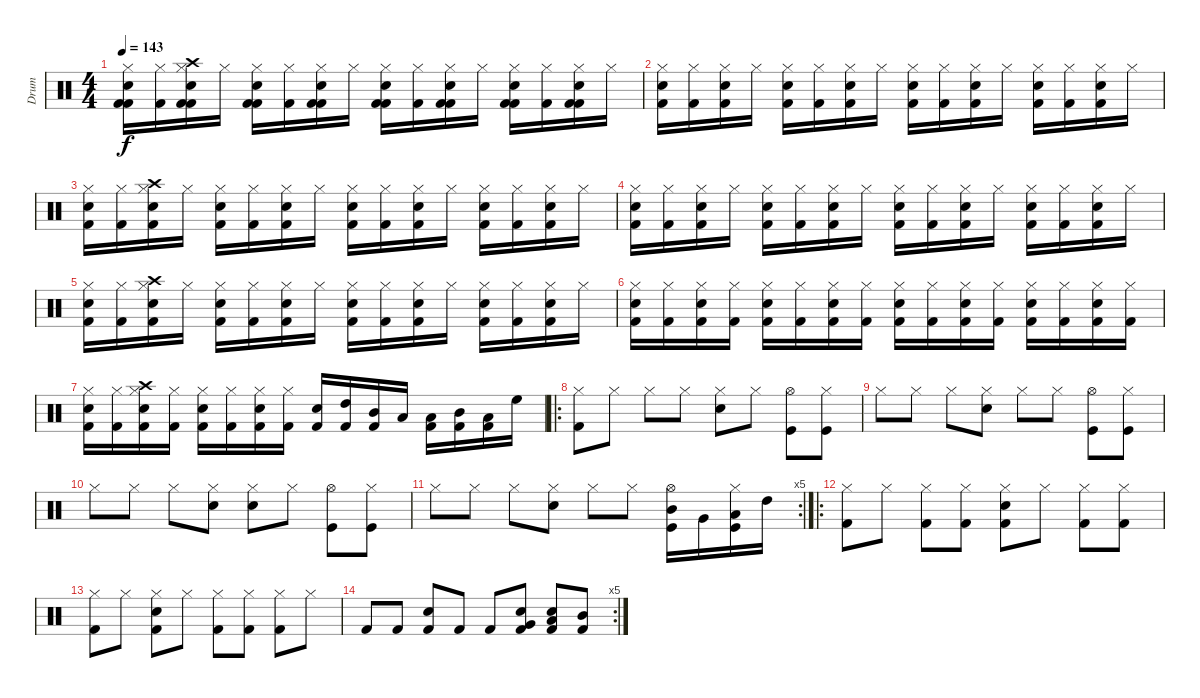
\track ("Drum" "Drum") {instrument percussion}
\staff {score}
\articulation defaults
\ts (4 4)
\tempo 143
\clef neutral
\ks c
("Snare (hit) 2" "Kick (hit) 2" "Kick (hit) 2" "Hi-Hat (closed)").16{dy f} ("Kick (hit) 2" "Hi-Hat (closed)").16 ("Snare (hit) 2" "Crash high (hit)" "Kick (hit) 2" "Kick (hit) 2" "Hi-Hat (closed)").16 "Hi-Hat (closed)".16 ("Snare (hit) 2" "Kick (hit) 2" "Kick (hit) 2" "Hi-Hat (closed)").16 ("Kick (hit) 2" "Hi-Hat (closed)").16 ("Snare (hit) 2" "Kick (hit) 2" "Kick (hit) 2" "Hi-Hat (closed)").16 "Hi-Hat (closed)".16 ("Snare (hit) 2" "Kick (hit) 2" "Kick (hit) 2" "Hi-Hat (closed)").16 ("Kick (hit) 2" "Hi-Hat (closed)").16 ("Snare (hit) 2" "Kick (hit) 2" "Kick (hit) 2" "Hi-Hat (closed)").16 "Hi-Hat (closed)".16 ("Snare (hit) 2" "Kick (hit) 2" "Kick (hit) 2" "Hi-Hat (closed)").16 ("Kick (hit) 2" "Hi-Hat (closed)").16 ("Snare (hit) 2" "Kick (hit) 2" "Kick (hit) 2" "Hi-Hat (closed)").16 "Hi-Hat (closed)".16 |
("Snare (hit) 2" "Kick (hit) 2" "Hi-Hat (closed)").16 ("Kick (hit) 2" "Hi-Hat (closed)").16 ("Snare (hit) 2" "Kick (hit) 2" "Hi-Hat (closed)").16 "Hi-Hat (closed)".16 ("Snare (hit) 2" "Kick (hit) 2" "Hi-Hat (closed)").16 ("Kick (hit) 2" "Hi-Hat (closed)").16 ("Snare (hit) 2" "Kick (hit) 2" "Hi-Hat (closed)").16 "Hi-Hat (closed)".16 ("Snare (hit) 2" "Kick (hit) 2" "Hi-Hat (closed)").16 ("Kick (hit) 2" "Hi-Hat (closed)").16 ("Snare (hit) 2" "Kick (hit) 2" "Hi-Hat (closed)").16 "Hi-Hat (closed)".16 ("Snare (hit) 2" "Kick (hit) 2" "Hi-Hat (closed)").16 ("Kick (hit) 2" "Hi-Hat (closed)").16 ("Snare (hit) 2" "Kick (hit) 2" "Hi-Hat (closed)").16 "Hi-Hat (closed)".16 |
("Snare (hit) 2" "Kick (hit) 2" "Hi-Hat (closed)").16 ("Kick (hit) 2" "Hi-Hat (closed)").16 ("Crash high (hit)" "Snare (hit) 2" "Kick (hit) 2" "Hi-Hat (closed)").16 "Hi-Hat (closed)".16 ("Snare (hit) 2" "Kick (hit) 2" "Hi-Hat (closed)").16 ("Kick (hit) 2" "Hi-Hat (closed)").16 ("Snare (hit) 2" "Kick (hit) 2" "Hi-Hat (closed)").16 "Hi-Hat (closed)".16 ("Snare (hit) 2" "Kick (hit) 2" "Hi-Hat (closed)").16 ("Kick (hit) 2" "Hi-Hat (closed)").16 ("Snare (hit) 2" "Kick (hit) 2" "Hi-Hat (closed)").16 "Hi-Hat (closed)".16 ("Snare (hit) 2" "Kick (hit) 2" "Hi-Hat (closed)").16 ("Kick (hit) 2" "Hi-Hat (closed)").16 ("Snare (hit) 2" "Kick (hit) 2" "Hi-Hat (closed)").16 "Hi-Hat (closed)".16 |
("Snare (hit) 2" "Kick (hit) 2" "Hi-Hat (closed)").16 ("Kick (hit) 2" "Hi-Hat (closed)").16 ("Snare (hit) 2" "Kick (hit) 2" "Hi-Hat (closed)").16 "Hi-Hat (closed)".16 ("Snare (hit) 2" "Kick (hit) 2" "Hi-Hat (closed)").16 ("Kick (hit) 2" "Hi-Hat (closed)").16 ("Snare (hit) 2" "Kick (hit) 2" "Hi-Hat (closed)").16 "Hi-Hat (closed)".16 ("Snare (hit) 2" "Kick (hit) 2" "Hi-Hat (closed)").16 ("Kick (hit) 2" "Hi-Hat (closed)").16 ("Snare (hit) 2" "Kick (hit) 2" "Hi-Hat (closed)").16 "Hi-Hat (closed)".16 ("Snare (hit) 2" "Kick (hit) 2" "Hi-Hat (closed)").16 ("Kick (hit) 2" "Hi-Hat (closed)").16 ("Snare (hit) 2" "Kick (hit) 2" "Hi-Hat (closed)").16 "Hi-Hat (closed)".16 |
("Snare (hit) 2" "Kick (hit) 2" "Hi-Hat (closed)").16 ("Kick (hit) 2" "Hi-Hat (closed)").16 ("Crash high (hit)" "Snare (hit) 2" "Kick (hit) 2" "Hi-Hat (closed)").16 "Hi-Hat (closed)".16 ("Snare (hit) 2" "Kick (hit) 2" "Hi-Hat (closed)").16 ("Kick (hit) 2" "Hi-Hat (closed)").16 ("Snare (hit) 2" "Kick (hit) 2" "Hi-Hat (closed)").16 "Hi-Hat (closed)".16 ("Snare (hit) 2" "Kick (hit) 2" "Hi-Hat (closed)").16 ("Kick (hit) 2" "Hi-Hat (closed)").16 ("Snare (hit) 2" "Kick (hit) 2" "Hi-Hat (closed)").16 "Hi-Hat (closed)".16 ("Snare (hit) 2" "Kick (hit) 2" "Hi-Hat (closed)").16 ("Kick (hit) 2" "Hi-Hat (closed)").16 ("Snare (hit) 2" "Kick (hit) 2" "Hi-Hat (closed)").16 "Hi-Hat (closed)".16 |
("Snare (hit) 2" "Kick (hit) 2" "Hi-Hat (closed)").16 ("Kick (hit) 2" "Hi-Hat (closed)").16 ("Snare (hit) 2" "Kick (hit) 2" "Hi-Hat (closed)").16 ("Kick (hit) 2" "Hi-Hat (closed)").16 ("Snare (hit) 2" "Kick (hit) 2" "Hi-Hat (closed)").16 ("Kick (hit) 2" "Hi-Hat (closed)").16 ("Snare (hit) 2" "Kick (hit) 2" "Hi-Hat (closed)").16 ("Kick (hit) 2" "Hi-Hat (closed)").16 ("Snare (hit) 2" "Kick (hit) 2" "Hi-Hat (closed)").16 ("Kick (hit) 2" "Hi-Hat (closed)").16 ("Snare (hit) 2" "Kick (hit) 2" "Hi-Hat (closed)").16 ("Kick (hit) 2" "Hi-Hat (closed)").16 ("Snare (hit) 2" "Kick (hit) 2" "Hi-Hat (closed)").16 ("Kick (hit) 2" "Hi-Hat (closed)").16 ("Snare (hit) 2" "Kick (hit) 2" "Hi-Hat (closed)").16 ("Kick (hit) 2" "Hi-Hat (closed)").16 |
("Snare (hit) 2" "Kick (hit) 2" "Hi-Hat (closed)").16 ("Kick (hit) 2" "Hi-Hat (closed)").16 ("Crash high (hit)" "Snare (hit) 2" "Kick (hit) 2" "Hi-Hat (closed)").16 ("Kick (hit) 2" "Hi-Hat (closed)").16 ("Snare (hit) 2" "Kick (hit) 2" "Hi-Hat (closed)").16 ("Kick (hit) 2" "Hi-Hat (closed)").16 ("Snare (hit) 2" "Kick (hit) 2" "Hi-Hat (closed)").16 ("Kick (hit) 2" "Hi-Hat (closed)").16 ("Snare (hit) 2" "Kick (hit) 2").16 ("High Tom (hit)" "Kick (hit) 2").16 ("Mid Tom (hit)" "Kick (hit) 2").16 "Low Tom (hit)".16 ("Low Floor Tom (hit)" "Kick (hit) 2").16 ("Mid Tom (hit)" "Kick (hit) 2").16 ("Low Tom (hit)" "Kick (hit) 2").16 "High Floor Tom (hit)".16 |
\ro
("Kick (hit) 2" "Hi-Hat (closed)").8 "Hi-Hat (closed)".8 "Hi-Hat (closed)".8 "Hi-Hat (closed)".8 ("Snare (hit) 2" "Hi-Hat (closed)").8 "Hi-Hat (closed)".8 ("Kick (hit)" "Hi-Hat (open)").8 ("Kick (hit)" "Hi-Hat (closed)").8 |
"Hi-Hat (closed)".8 "Hi-Hat (closed)".8 "Hi-Hat (closed)".8 ("Snare (hit) 2" "Hi-Hat (closed)").8 "Hi-Hat (closed)".8 "Hi-Hat (closed)".8 ("Kick (hit)" "Hi-Hat (open)").8 ("Kick (hit)" "Hi-Hat (closed)").8 |
"Hi-Hat (closed)".8 "Hi-Hat (closed)".8 "Hi-Hat (closed)".8 ("Snare (hit) 2" "Hi-Hat (closed)").8 ("Snare (hit) 2" "Hi-Hat (closed)").8 "Hi-Hat (closed)".8 ("Kick (hit)" "Hi-Hat (open)").8 ("Kick (hit)" "Hi-Hat (closed)").8 |
\rc 5 "Hi-Hat (closed)".8 "Hi-Hat (closed)".8 "Hi-Hat (closed)".8
("Snare (hit) 2" "Hi-Hat (closed)").8 "Hi-Hat (closed)".8 "Hi-Hat (closed)".8 ("Mid Tom (hit)" "Kick (hit)" "Hi-Hat (open)").16 "Very Low Tom (hit)".16 ("Low Floor Tom (hit)" "Kick (hit)" "Hi-Hat (closed)").16 "High Tom (hit)".16 |
\ro
("Kick (hit) 2" "Hi-Hat (closed)").8 "Hi-Hat (closed)".8 ("Kick (hit) 2" "Hi-Hat (closed)").8 ("Kick (hit) 2" "Hi-Hat (closed)").8 ("Snare (hit) 2" "Kick (hit) 2" "Hi-Hat (closed)").8 "Hi-Hat (closed)".8 ("Kick (hit) 2" "Hi-Hat (closed)").8 ("Kick (hit) 2" "Hi-Hat (closed)").8 |
("Kick (hit) 2" "Hi-Hat (closed)").8 "Hi-Hat (closed)".8 ("Snare (hit) 2" "Kick (hit) 2" "Hi-Hat (closed)").8 "Hi-Hat (closed)".8 ("Kick (hit) 2" "Hi-Hat (closed)").8 ("Kick (hit) 2" "Hi-Hat (closed)").8 ("Kick (hit) 2" "Hi-Hat (closed)").8 "Hi-Hat (closed)".8 |
\rc 5 "Kick (hit) 2".8 "Kick (hit) 2".8
("Snare (hit) 2" "Kick (hit) 2").8 "Kick (hit) 2".8 "Kick (hit) 2".8 ("Very Low Tom (hit)" "Snare (hit) 2" "Kick (hit) 2").8 ("Low Tom (hit)" "Snare (hit) 2" "Kick (hit) 2").8 ("Mid Tom (hit)" "Kick (hit) 2").8
